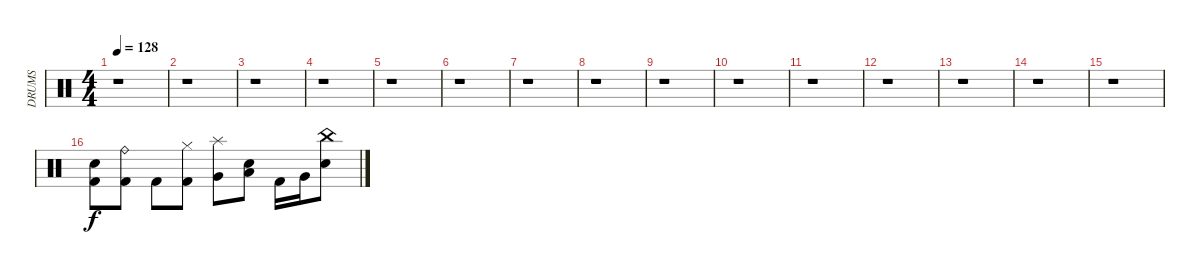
\track ("DRUMS" "DRUMS") {instrument percussion}
\staff {score}
\articulation defaults
\ts (4 4)
\tempo 128
\clef neutral
\ks c
r.1{dy f} |
r.1 |
r.1 |
r.1 |
r.1 |
r.1 |
r.1 |
r.1 |
r.1 |
r.1 |
r.1 |
r.1 |
r.1 |
r.1 |
r.1 |
("Electric Snare (hit)" "Kick (hit) 2").8 ("Kick (hit) 2" "Ride (bell)").8 "Kick (hit) 2".8 ("Hi-Hat (closed)" "Kick (hit) 2").8 ("Very Low Tom (hit)" "Splash (hit)").8 ("Low Tom (hit)" "Electric Snare (hit)").8 "Kick (hit) 2".16 "Very Low Tom (hit)".16 ("Electric Snare (hit)" "China (hit)").8
